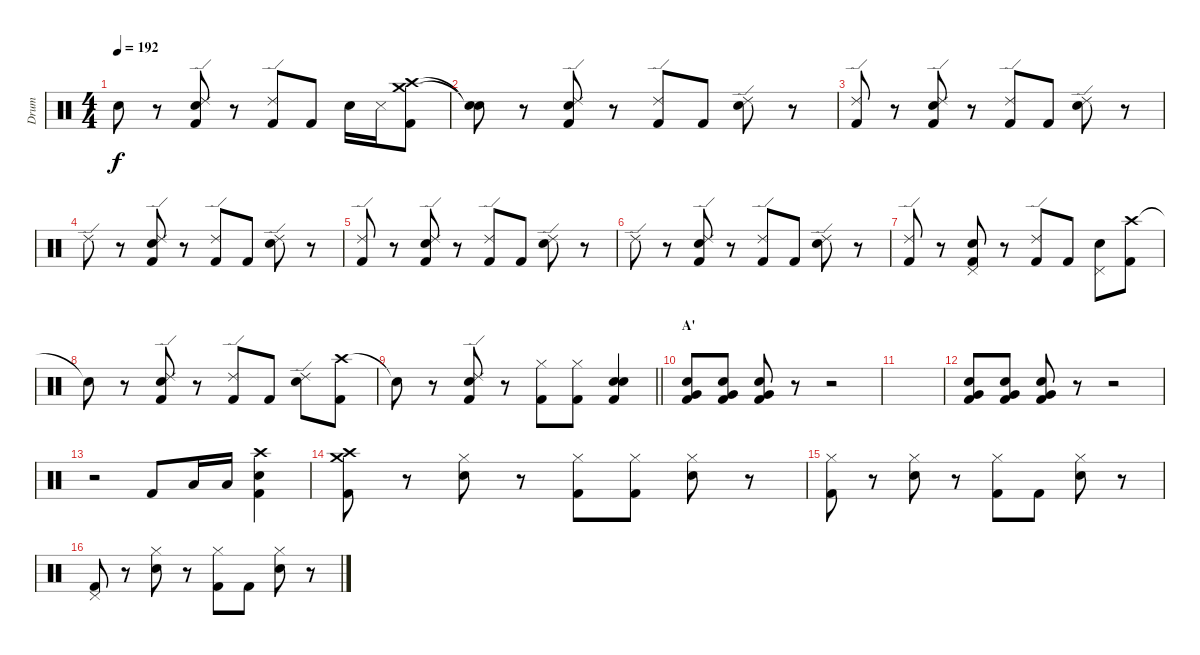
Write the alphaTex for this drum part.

\track ("Drum" "Drum") {instrument percussion}
\staff {score}
\articulation defaults
\ts (4 4)
\tempo 192
\clef neutral
\ks c "Snare (hit)"{t}.8{dy f}
r.8 ("Ride (edge) 2" "Electric Snare (hit)" "Kick (hit) 2").8 r.8 ("Ride (edge) 2" "Kick (hit) 2").8 "Kick (hit) 2".8 "Electric Snare (hit)".16 "Snare (side stick) 3".16 ("Crash high (hit)" "Crash medium (hit)" "Kick (hit) 2").8 |
("Snare (hit)"{t} "Snare (hit)"{t}).8 r.8 ("Ride (edge) 2" "Electric Snare (hit)" "Kick (hit) 2").8 r.8 ("Ride (edge) 2" "Kick (hit) 2").8 "Kick (hit) 2".8 ("Ride (edge) 2" "Electric Snare (hit)").8 r.8 |
("Ride (edge) 2" "Kick (hit) 2").8 r.8 ("Ride (edge) 2" "Electric Snare (hit)" "Kick (hit) 2").8 r.8 ("Ride (edge) 2" "Kick (hit) 2").8 "Kick (hit) 2".8 ("Ride (edge) 2" "Electric Snare (hit)").8 r.8 |
"Ride (edge) 2".8 r.8 ("Ride (edge) 2" "Electric Snare (hit)" "Kick (hit) 2").8 r.8 ("Ride (edge) 2" "Kick (hit) 2").8 "Kick (hit) 2".8 ("Ride (edge) 2" "Electric Snare (hit)").8 r.8 |
("Ride (edge) 2" "Kick (hit) 2").8 r.8 ("Ride (edge) 2" "Electric Snare (hit)" "Kick (hit) 2").8 r.8 ("Ride (edge) 2" "Kick (hit) 2").8 "Kick (hit) 2".8 ("Ride (edge) 2" "Electric Snare (hit)").8 r.8 |
"Ride (edge) 2".8 r.8 ("Ride (edge) 2" "Electric Snare (hit)" "Kick (hit) 2").8 r.8 ("Ride (edge) 2" "Kick (hit) 2").8 "Kick (hit) 2".8 ("Ride (edge) 2" "Electric Snare (hit)").8 r.8 |
("Ride (edge) 2" "Kick (hit) 2").8 r.8 ("Pedal Hi-Hat (hit)" "Electric Snare (hit)" "Kick (hit) 2").8 r.8 ("Ride (edge) 2" "Kick (hit) 2").8 "Kick (hit) 2".8 ("Pedal Hi-Hat (hit)" "Electric Snare (hit)").8 ("Crash high (hit)" "Kick (hit) 2").8 |
"Snare (hit)"{t}.8 r.8 ("Ride (edge) 2" "Electric Snare (hit)" "Kick (hit) 2").8 r.8 ("Ride (edge) 2" "Kick (hit) 2").8 "Kick (hit) 2".8 ("Ride (edge) 2" "Electric Snare (hit)").8 ("Crash high (hit)" "Kick (hit) 2").8 |
\barLineRight lightlight "Snare (hit)"{t}.8
r.8 ("Ride (edge) 2" "Electric Snare (hit)" "Kick (hit) 2").8 r.8 ("Hi-Hat (closed)" "Kick (hit) 2").8 ("Hi-Hat (closed)" "Kick (hit) 2").8 ("Snare (hit) 2" "Electric Snare (hit)" "Kick (hit) 2").4 |
\section ("" "A'")
("Very Low Tom (hit)" "Electric Snare (hit)" "Kick (hit) 2").8 ("Very Low Tom (hit)" "Electric Snare (hit)" "Kick (hit) 2").8 ("Very Low Tom (hit)" "Electric Snare (hit)" "Kick (hit) 2").8 r.8 r.2 |
|
("Very Low Tom (hit)" "Electric Snare (hit)" "Kick (hit) 2").8 ("Very Low Tom (hit)" "Electric Snare (hit)" "Kick (hit) 2").8 ("Very Low Tom (hit)" "Electric Snare (hit)" "Kick (hit) 2").8 r.8 r.2 |
r.2 "Kick (hit) 2".8 "Low Tom (hit)".16 "Low Tom (hit)".16 ("Crash high (hit)" "Snare (hit) 2" "Kick (hit) 2").4 |
("Crash high (hit)" "Crash medium (hit)" "Kick (hit) 2").8 r.8 ("Hi-Hat (closed)" "Electric Snare (hit)").8 r.8 ("Hi-Hat (closed)" "Kick (hit) 2").8 ("Hi-Hat (closed)" "Kick (hit) 2").8 ("Hi-Hat (closed)" "Electric Snare (hit)").8 r.8 |
("Hi-Hat (closed)" "Kick (hit) 2").8 r.8 ("Hi-Hat (closed)" "Electric Snare (hit)").8 r.8 ("Hi-Hat (closed)" "Kick (hit) 2").8 "Kick (hit) 2".8 ("Hi-Hat (closed)" "Electric Snare (hit)").8 r.8 |
("Pedal Hi-Hat (hit)" "Kick (hit) 2").8 r.8 ("Hi-Hat (closed)" "Electric Snare (hit)").8 r.8 ("Hi-Hat (closed)" "Kick (hit) 2").8 "Kick (hit) 2".8 ("Hi-Hat (closed)" "Electric Snare (hit)").8 r.8
